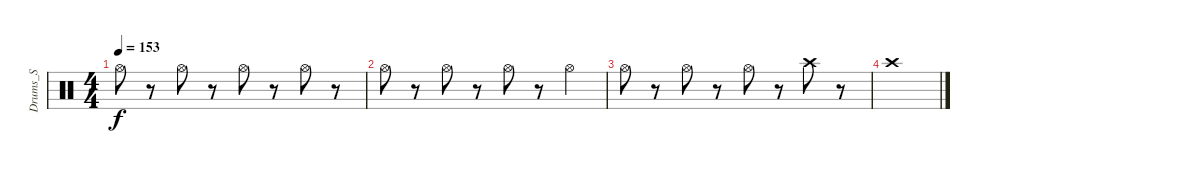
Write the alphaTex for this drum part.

\track ("Drums_S" "Drums_S") {instrument percussion}
\staff {score}
\articulation defaults
\ts (4 4)
\tempo 153
\clef neutral
\ks c "Hi-Hat (open)".8{dy f}
r.8 "Hi-Hat (open)".8 r.8 "Hi-Hat (open)".8 r.8 "Hi-Hat (open)".8 r.8 |
"Hi-Hat (open)".8 r.8 "Hi-Hat (open)".8 r.8 "Hi-Hat (open)".8 r.8 "Hi-Hat (open)".4 |
"Hi-Hat (open)".8 r.8 "Hi-Hat (open)".8 r.8 "Hi-Hat (open)".8 r.8 "Crash high (hit)".8 r.8 |
"Crash high (hit)".1
